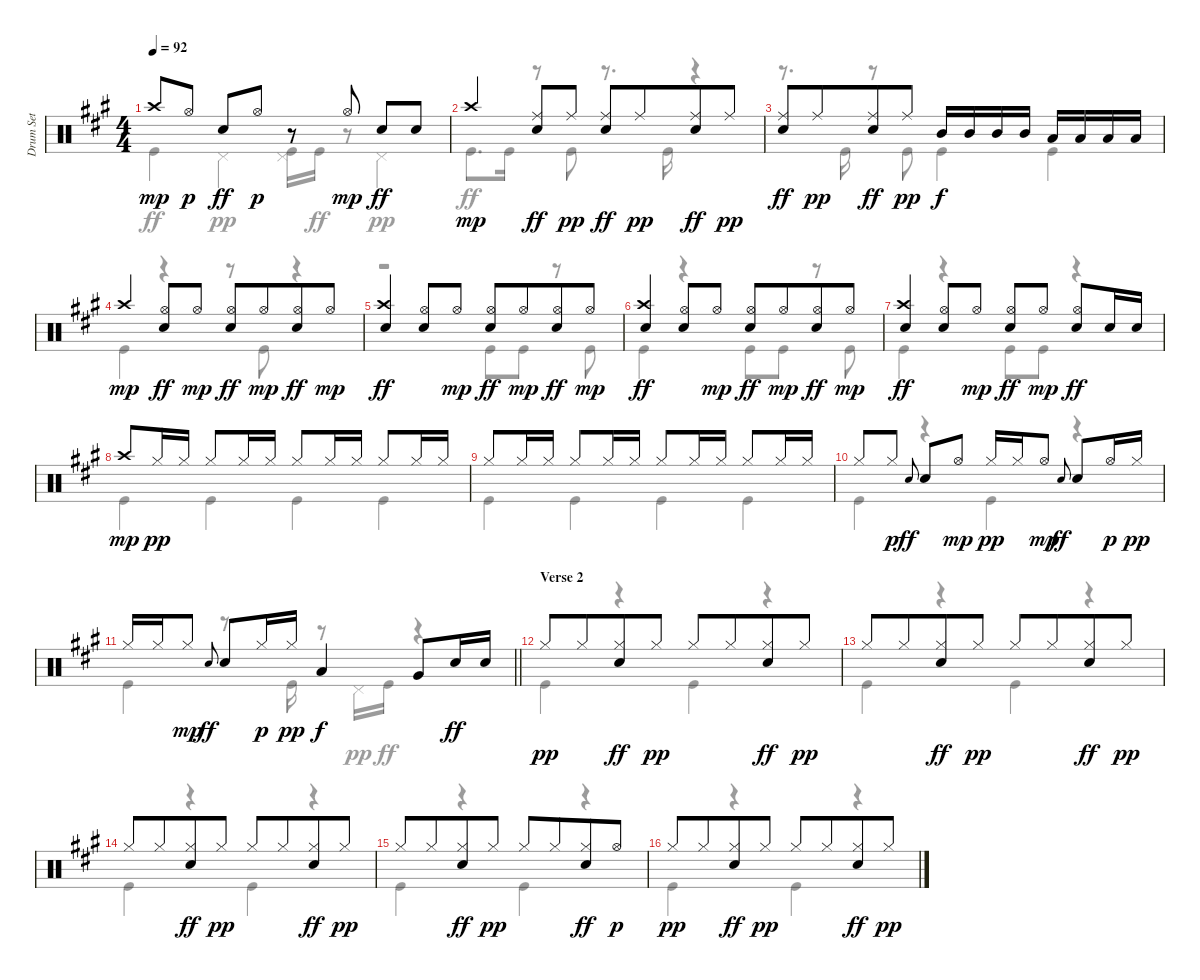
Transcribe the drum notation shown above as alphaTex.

\track ("Drum Set" "Drum Set") {instrument percussion}
\staff {score}
\articulation defaults
\voice
\ts (4 4)
\tempo 92
\clef neutral
\ks f#minor "Crash high (hit)".8{dy mp} "Hi-Hat (open)".8{dy p beam split} "Electric Snare (hit)".8{dy ff} "Hi-Hat (open)".8{dy p}
r.8 "Hi-Hat (open)".8{dy mp} "Electric Snare (hit)".8{dy ff} "Electric Snare (hit)".8 |
"Crash high (hit)".4{dy mp} ("Ride (middle)" "Electric Snare (hit)").8{dy ff} "Ride (middle)".8{dy pp} ("Ride (middle)" "Electric Snare (hit)").8{dy ff} "Ride (middle)".8{dy pp beam merge} ("Ride (middle)" "Electric Snare (hit)").8{dy ff} "Ride (middle)".8{dy pp} |
("Ride (middle)" "Electric Snare (hit)").8{dy ff} "Ride (middle)".8{dy pp beam merge} ("Ride (middle)" "Electric Snare (hit)").8{dy ff} "Ride (middle)".8{dy pp} "Mid Tom (hit)".16{dy f} "Mid Tom (hit)".16 "Mid Tom (hit)".16 "Mid Tom (hit)".16 "Low Tom (hit)".16 "Low Tom (hit)".16 "Low Tom (hit)".16 "Low Tom (hit)".16 |
"Crash high (hit)".4{dy mp} ("Hi-Hat (open)" "Electric Snare (hit)").8{dy ff} "Hi-Hat (open)".8{dy mp} ("Hi-Hat (open)" "Electric Snare (hit)").8{dy ff} "Hi-Hat (open)".8{dy mp beam merge} ("Hi-Hat (open)" "Electric Snare (hit)").8{dy ff} "Hi-Hat (open)".8{dy mp} |
("Crash high (hit)" "Electric Snare (hit)").4{dy ff} ("Hi-Hat (open)" "Electric Snare (hit)").8 "Hi-Hat (open)".8{dy mp} ("Hi-Hat (open)" "Electric Snare (hit)").8{dy ff} "Hi-Hat (open)".8{dy mp beam merge} ("Hi-Hat (open)" "Electric Snare (hit)").8{dy ff} "Hi-Hat (open)".8{dy mp} |
("Crash high (hit)" "Electric Snare (hit)").4{dy ff} ("Hi-Hat (open)" "Electric Snare (hit)").8 "Hi-Hat (open)".8{dy mp} ("Hi-Hat (open)" "Electric Snare (hit)").8{dy ff} "Hi-Hat (open)".8{dy mp beam merge} ("Hi-Hat (open)" "Electric Snare (hit)").8{dy ff} "Hi-Hat (open)".8{dy mp} |
("Crash high (hit)" "Electric Snare (hit)").4{dy ff} ("Hi-Hat (open)" "Electric Snare (hit)").8 "Hi-Hat (open)".8{dy mp} ("Hi-Hat (open)" "Electric Snare (hit)").8{dy ff} "Hi-Hat (open)".8{dy mp beam split} ("Hi-Hat (open)" "Electric Snare (hit)").8{dy ff} "Electric Snare (hit)".16 "Electric Snare (hit)".16 |
"Crash high (hit)".8{dy mp} "Hi-Hat (closed)".16{dy pp} "Hi-Hat (closed)".16 "Hi-Hat (closed)".8 "Hi-Hat (closed)".16 "Hi-Hat (closed)".16 "Hi-Hat (closed)".8 "Hi-Hat (closed)".16 "Hi-Hat (closed)".16 "Hi-Hat (closed)".8 "Hi-Hat (closed)".16 "Hi-Hat (closed)".16 |
"Hi-Hat (closed)".8 "Hi-Hat (closed)".16 "Hi-Hat (closed)".16 "Hi-Hat (closed)".8 "Hi-Hat (closed)".16 "Hi-Hat (closed)".16 "Hi-Hat (closed)".8 "Hi-Hat (closed)".16 "Hi-Hat (closed)".16 "Hi-Hat (closed)".8 "Hi-Hat (closed)".16 "Hi-Hat (closed)".16 |
"Hi-Hat (closed)".8 "Hi-Hat (closed)".8{dy p} "Electric Snare (hit)".8{gr onbeat dy ff beam merge} "Electric Snare (hit)".8 "Hi-Hat (open)".8{dy mp} "Hi-Hat (closed)".16{dy pp} "Hi-Hat (closed)".16 "Hi-Hat (open)".8{dy mp} "Electric Snare (hit)".8{gr onbeat dy ff} "Electric Snare (hit)".8 "Hi-Hat (open)".16{dy p} "Hi-Hat (closed)".16{dy pp} |
\barLineRight lightlight "Hi-Hat (closed)".16 "Hi-Hat (closed)".16 "Hi-Hat (closed)".8{dy mp} "Electric Snare (hit)".8{gr onbeat dy ff} "Electric Snare (hit)".8 "Hi-Hat (closed)".16{dy p} "Hi-Hat (closed)".16{dy pp} "Low Tom (hit)".4{dy f} "Very Low Tom (hit)".8 "Electric Snare (hit)".16{dy ff} "Electric Snare (hit)".16
|
\section ("" "Verse 2")
"Hi-Hat (closed)".8{dy pp} "Hi-Hat (closed)".8{beam merge} ("Hi-Hat (closed)" "Electric Snare (hit)").8{dy ff} "Hi-Hat (closed)".8{dy pp} "Hi-Hat (closed)".8 "Hi-Hat (closed)".8{beam merge} ("Hi-Hat (closed)" "Electric Snare (hit)").8{dy ff} "Hi-Hat (closed)".8{dy pp} |
"Hi-Hat (closed)".8 "Hi-Hat (closed)".8{beam merge} ("Hi-Hat (closed)" "Electric Snare (hit)").8{dy ff} "Hi-Hat (closed)".8{dy pp} "Hi-Hat (closed)".8 "Hi-Hat (closed)".8{beam merge} ("Hi-Hat (closed)" "Electric Snare (hit)").8{dy ff} "Hi-Hat (closed)".8{dy pp} |
"Hi-Hat (closed)".8 "Hi-Hat (closed)".8{beam merge} ("Hi-Hat (closed)" "Electric Snare (hit)").8{dy ff} "Hi-Hat (closed)".8{dy pp} "Hi-Hat (closed)".8 "Hi-Hat (closed)".8{beam merge} ("Hi-Hat (closed)" "Electric Snare (hit)").8{dy ff} "Hi-Hat (closed)".8{dy pp} |
"Hi-Hat (closed)".8 "Hi-Hat (closed)".8{beam merge} ("Hi-Hat (closed)" "Electric Snare (hit)").8{dy ff} "Hi-Hat (closed)".8{dy pp} "Hi-Hat (closed)".8 "Hi-Hat (closed)".8{beam merge} ("Hi-Hat (closed)" "Electric Snare (hit)").8{dy ff} "Hi-Hat (open)".8{dy p} |
"Hi-Hat (closed)".8{dy pp} "Hi-Hat (closed)".8{beam merge} ("Hi-Hat (closed)" "Electric Snare (hit)").8{dy ff} "Hi-Hat (closed)".8{dy pp} "Hi-Hat (closed)".8 "Hi-Hat (closed)".8{beam merge} ("Hi-Hat (closed)" "Electric Snare (hit)").8{dy ff} "Hi-Hat (closed)".8{dy pp}
\voice
\clef neutral
\ottava regular
\simile none
\ks f#minor "Kick (hit)".4{dy ff} "Pedal Hi-Hat (hit)".4{dy pp}
("Kick (hit)" "Pedal Hi-Hat (hit)").16 "Kick (hit)".16{dy ff} r.8 "Pedal Hi-Hat (hit)".4{dy pp} |
"Kick (hit)".8{d dy ff} "Kick (hit)".16 r.8 "Kick (hit)".8 r.8{d} "Kick (hit)".16 r.4 |
r.8{d} "Kick (hit)".16 r.8 "Kick (hit)".8 "Kick (hit)".4 "Kick (hit)".4 |
"Kick (hit)".4 r.4 r.8 "Kick (hit)".8 r.4 |
r.2 "Kick (hit)".8 "Kick (hit)".8 r.8 "Kick (hit)".8 |
"Kick (hit)".4 r.4 "Kick (hit)".8 "Kick (hit)".8 r.8 "Kick (hit)".8 |
"Kick (hit)".4 r.4 "Kick (hit)".8 "Kick (hit)".8 r.4 |
"Kick (hit)".4 "Kick (hit)".4 "Kick (hit)".4 "Kick (hit)".4 |
"Kick (hit)".4 "Kick (hit)".4 "Kick (hit)".4 "Kick (hit)".4 |
"Kick (hit)".4 r.4 "Kick (hit)".4 r.4 |
\barLineRight lightlight "Kick (hit)".4
r.8{d} "Kick (hit)".16 r.8 "Pedal Hi-Hat (hit)".16{dy pp} "Kick (hit)".16{dy ff} r.4 |
"Kick (hit)".4 r.4 "Kick (hit)".4 r.4 |
"Kick (hit)".4 r.4 "Kick (hit)".4 r.4 |
"Kick (hit)".4 r.4 "Kick (hit)".4 r.4 |
"Kick (hit)".4 r.4 "Kick (hit)".4 r.4 |
"Kick (hit)".4 r.4 "Kick (hit)".4 r.4
